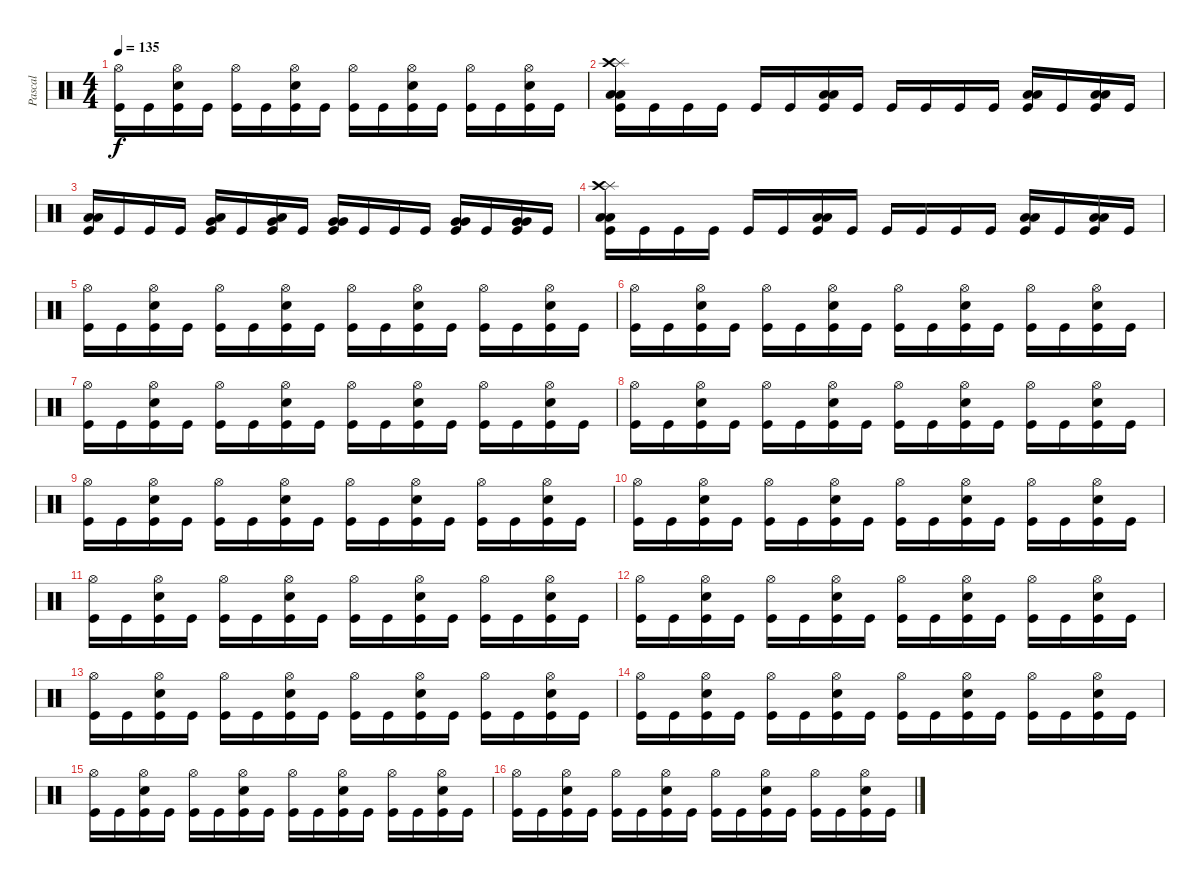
\track ("Pascal" "Pascal") {instrument percussion}
\staff {score}
\articulation defaults
\ts (4 4)
\tempo 135
\clef neutral
\ks c
("Kick (hit)" "Hi-Hat (open)").16{dy f} "Kick (hit)".16 ("Electric Snare (hit)" "Kick (hit)" "Hi-Hat (open)").16 "Kick (hit)".16 ("Kick (hit)" "Hi-Hat (open)").16 "Kick (hit)".16 ("Electric Snare (hit)" "Kick (hit)" "Hi-Hat (open)").16 "Kick (hit)".16 ("Kick (hit)" "Hi-Hat (open)").16 "Kick (hit)".16 ("Electric Snare (hit)" "Kick (hit)" "Hi-Hat (open)").16 "Kick (hit)".16 ("Kick (hit)" "Hi-Hat (open)").16 "Kick (hit)".16 ("Electric Snare (hit)" "Kick (hit)" "Hi-Hat (open)").16 "Kick (hit)".16 |
("Low Floor Tom (hit)" "Kick (hit)" "Splash (hit)" "Low Floor Tom (hit)" "Crash high (hit)").16 "Kick (hit)".16 "Kick (hit)".16 "Kick (hit)".16 "Kick (hit)".16 "Kick (hit)".16 ("Low Floor Tom (hit)" "Kick (hit)" "Low Floor Tom (hit)").16 "Kick (hit)".16 "Kick (hit)".16 "Kick (hit)".16 "Kick (hit)".16 "Kick (hit)".16 ("Low Floor Tom (hit)" "Kick (hit)" "Low Floor Tom (hit)").16 "Kick (hit)".16 ("Low Floor Tom (hit)" "Kick (hit)" "Low Floor Tom (hit)").16 "Kick (hit)".16 |
("Low Floor Tom (hit)" "Kick (hit)" "Low Floor Tom (hit)").16 "Kick (hit)".16 "Kick (hit)".16 "Kick (hit)".16 ("Low Floor Tom (hit)" "Kick (hit)" "Very Low Tom (hit)").16 "Kick (hit)".16 ("Low Floor Tom (hit)" "Kick (hit)" "Very Low Tom (hit)").16 "Kick (hit)".16 ("Very Low Tom (hit)" "Kick (hit)" "Very Low Tom (hit)").16 "Kick (hit)".16 "Kick (hit)".16 "Kick (hit)".16 ("Very Low Tom (hit)" "Kick (hit)" "Very Low Tom (hit)").16 "Kick (hit)".16 ("Very Low Tom (hit)" "Kick (hit)" "Very Low Tom (hit)").16 "Kick (hit)".16 |
("Low Floor Tom (hit)" "Kick (hit)" "Splash (hit)" "Low Floor Tom (hit)" "Crash high (hit)").16 "Kick (hit)".16 "Kick (hit)".16 "Kick (hit)".16 "Kick (hit)".16 "Kick (hit)".16 ("Low Floor Tom (hit)" "Kick (hit)" "Low Floor Tom (hit)").16 "Kick (hit)".16 "Kick (hit)".16 "Kick (hit)".16 "Kick (hit)".16 "Kick (hit)".16 ("Low Floor Tom (hit)" "Kick (hit)" "Low Floor Tom (hit)").16 "Kick (hit)".16 ("Low Floor Tom (hit)" "Kick (hit)" "Low Floor Tom (hit)").16 "Kick (hit)".16 |
("Kick (hit)" "Hi-Hat (open)").16 "Kick (hit)".16 ("Electric Snare (hit)" "Kick (hit)" "Hi-Hat (open)").16 "Kick (hit)".16 ("Kick (hit)" "Hi-Hat (open)").16 "Kick (hit)".16 ("Electric Snare (hit)" "Kick (hit)" "Hi-Hat (open)").16 "Kick (hit)".16 ("Kick (hit)" "Hi-Hat (open)").16 "Kick (hit)".16 ("Electric Snare (hit)" "Kick (hit)" "Hi-Hat (open)").16 "Kick (hit)".16 ("Kick (hit)" "Hi-Hat (open)").16 "Kick (hit)".16 ("Electric Snare (hit)" "Kick (hit)" "Hi-Hat (open)").16 "Kick (hit)".16 |
("Kick (hit)" "Hi-Hat (open)").16 "Kick (hit)".16 ("Electric Snare (hit)" "Kick (hit)" "Hi-Hat (open)").16 "Kick (hit)".16 ("Kick (hit)" "Hi-Hat (open)").16 "Kick (hit)".16 ("Electric Snare (hit)" "Kick (hit)" "Hi-Hat (open)").16 "Kick (hit)".16 ("Kick (hit)" "Hi-Hat (open)").16 "Kick (hit)".16 ("Electric Snare (hit)" "Kick (hit)" "Hi-Hat (open)").16 "Kick (hit)".16 ("Kick (hit)" "Hi-Hat (open)").16 "Kick (hit)".16 ("Electric Snare (hit)" "Kick (hit)" "Hi-Hat (open)").16 "Kick (hit)".16 |
("Kick (hit)" "Hi-Hat (open)").16 "Kick (hit)".16 ("Electric Snare (hit)" "Kick (hit)" "Hi-Hat (open)").16 "Kick (hit)".16 ("Kick (hit)" "Hi-Hat (open)").16 "Kick (hit)".16 ("Electric Snare (hit)" "Kick (hit)" "Hi-Hat (open)").16 "Kick (hit)".16 ("Kick (hit)" "Hi-Hat (open)").16 "Kick (hit)".16 ("Electric Snare (hit)" "Kick (hit)" "Hi-Hat (open)").16 "Kick (hit)".16 ("Kick (hit)" "Hi-Hat (open)").16 "Kick (hit)".16 ("Electric Snare (hit)" "Kick (hit)" "Hi-Hat (open)").16 "Kick (hit)".16 |
("Kick (hit)" "Hi-Hat (open)").16 "Kick (hit)".16 ("Electric Snare (hit)" "Kick (hit)" "Hi-Hat (open)").16 "Kick (hit)".16 ("Kick (hit)" "Hi-Hat (open)").16 "Kick (hit)".16 ("Electric Snare (hit)" "Kick (hit)" "Hi-Hat (open)").16 "Kick (hit)".16 ("Kick (hit)" "Hi-Hat (open)").16 "Kick (hit)".16 ("Electric Snare (hit)" "Kick (hit)" "Hi-Hat (open)").16 "Kick (hit)".16 ("Kick (hit)" "Hi-Hat (open)").16 "Kick (hit)".16 ("Electric Snare (hit)" "Kick (hit)" "Hi-Hat (open)").16 "Kick (hit)".16 |
("Kick (hit)" "Hi-Hat (open)").16 "Kick (hit)".16 ("Electric Snare (hit)" "Kick (hit)" "Hi-Hat (open)").16 "Kick (hit)".16 ("Kick (hit)" "Hi-Hat (open)").16 "Kick (hit)".16 ("Electric Snare (hit)" "Kick (hit)" "Hi-Hat (open)").16 "Kick (hit)".16 ("Kick (hit)" "Hi-Hat (open)").16 "Kick (hit)".16 ("Electric Snare (hit)" "Kick (hit)" "Hi-Hat (open)").16 "Kick (hit)".16 ("Kick (hit)" "Hi-Hat (open)").16 "Kick (hit)".16 ("Electric Snare (hit)" "Kick (hit)" "Hi-Hat (open)").16 "Kick (hit)".16 |
("Kick (hit)" "Hi-Hat (open)").16 "Kick (hit)".16 ("Electric Snare (hit)" "Kick (hit)" "Hi-Hat (open)").16 "Kick (hit)".16 ("Kick (hit)" "Hi-Hat (open)").16 "Kick (hit)".16 ("Electric Snare (hit)" "Kick (hit)" "Hi-Hat (open)").16 "Kick (hit)".16 ("Kick (hit)" "Hi-Hat (open)").16 "Kick (hit)".16 ("Electric Snare (hit)" "Kick (hit)" "Hi-Hat (open)").16 "Kick (hit)".16 ("Kick (hit)" "Hi-Hat (open)").16 "Kick (hit)".16 ("Electric Snare (hit)" "Kick (hit)" "Hi-Hat (open)").16 "Kick (hit)".16 |
("Kick (hit)" "Hi-Hat (open)").16 "Kick (hit)".16 ("Electric Snare (hit)" "Kick (hit)" "Hi-Hat (open)").16 "Kick (hit)".16 ("Kick (hit)" "Hi-Hat (open)").16 "Kick (hit)".16 ("Electric Snare (hit)" "Kick (hit)" "Hi-Hat (open)").16 "Kick (hit)".16 ("Kick (hit)" "Hi-Hat (open)").16 "Kick (hit)".16 ("Electric Snare (hit)" "Kick (hit)" "Hi-Hat (open)").16 "Kick (hit)".16 ("Kick (hit)" "Hi-Hat (open)").16 "Kick (hit)".16 ("Electric Snare (hit)" "Kick (hit)" "Hi-Hat (open)").16 "Kick (hit)".16 |
("Kick (hit)" "Hi-Hat (open)").16 "Kick (hit)".16 ("Electric Snare (hit)" "Kick (hit)" "Hi-Hat (open)").16 "Kick (hit)".16 ("Kick (hit)" "Hi-Hat (open)").16 "Kick (hit)".16 ("Electric Snare (hit)" "Kick (hit)" "Hi-Hat (open)").16 "Kick (hit)".16 ("Kick (hit)" "Hi-Hat (open)").16 "Kick (hit)".16 ("Electric Snare (hit)" "Kick (hit)" "Hi-Hat (open)").16 "Kick (hit)".16 ("Kick (hit)" "Hi-Hat (open)").16 "Kick (hit)".16 ("Electric Snare (hit)" "Kick (hit)" "Hi-Hat (open)").16 "Kick (hit)".16 |
("Kick (hit)" "Hi-Hat (open)").16 "Kick (hit)".16 ("Electric Snare (hit)" "Kick (hit)" "Hi-Hat (open)").16 "Kick (hit)".16 ("Kick (hit)" "Hi-Hat (open)").16 "Kick (hit)".16 ("Electric Snare (hit)" "Kick (hit)" "Hi-Hat (open)").16 "Kick (hit)".16 ("Kick (hit)" "Hi-Hat (open)").16 "Kick (hit)".16 ("Electric Snare (hit)" "Kick (hit)" "Hi-Hat (open)").16 "Kick (hit)".16 ("Kick (hit)" "Hi-Hat (open)").16 "Kick (hit)".16 ("Electric Snare (hit)" "Kick (hit)" "Hi-Hat (open)").16 "Kick (hit)".16 |
("Kick (hit)" "Hi-Hat (open)").16 "Kick (hit)".16 ("Electric Snare (hit)" "Kick (hit)" "Hi-Hat (open)").16 "Kick (hit)".16 ("Kick (hit)" "Hi-Hat (open)").16 "Kick (hit)".16 ("Electric Snare (hit)" "Kick (hit)" "Hi-Hat (open)").16 "Kick (hit)".16 ("Kick (hit)" "Hi-Hat (open)").16 "Kick (hit)".16 ("Electric Snare (hit)" "Kick (hit)" "Hi-Hat (open)").16 "Kick (hit)".16 ("Kick (hit)" "Hi-Hat (open)").16 "Kick (hit)".16 ("Electric Snare (hit)" "Kick (hit)" "Hi-Hat (open)").16 "Kick (hit)".16 |
("Kick (hit)" "Hi-Hat (open)").16 "Kick (hit)".16 ("Electric Snare (hit)" "Kick (hit)" "Hi-Hat (open)").16 "Kick (hit)".16 ("Kick (hit)" "Hi-Hat (open)").16 "Kick (hit)".16 ("Electric Snare (hit)" "Kick (hit)" "Hi-Hat (open)").16 "Kick (hit)".16 ("Kick (hit)" "Hi-Hat (open)").16 "Kick (hit)".16 ("Electric Snare (hit)" "Kick (hit)" "Hi-Hat (open)").16 "Kick (hit)".16 ("Kick (hit)" "Hi-Hat (open)").16 "Kick (hit)".16 ("Electric Snare (hit)" "Kick (hit)" "Hi-Hat (open)").16 "Kick (hit)".16 |
("Kick (hit)" "Hi-Hat (open)").16 "Kick (hit)".16 ("Electric Snare (hit)" "Kick (hit)" "Hi-Hat (open)").16 "Kick (hit)".16 ("Kick (hit)" "Hi-Hat (open)").16 "Kick (hit)".16 ("Electric Snare (hit)" "Kick (hit)" "Hi-Hat (open)").16 "Kick (hit)".16 ("Kick (hit)" "Hi-Hat (open)").16 "Kick (hit)".16 ("Electric Snare (hit)" "Kick (hit)" "Hi-Hat (open)").16 "Kick (hit)".16 ("Kick (hit)" "Hi-Hat (open)").16 "Kick (hit)".16 ("Electric Snare (hit)" "Kick (hit)" "Hi-Hat (open)").16 "Kick (hit)".16
